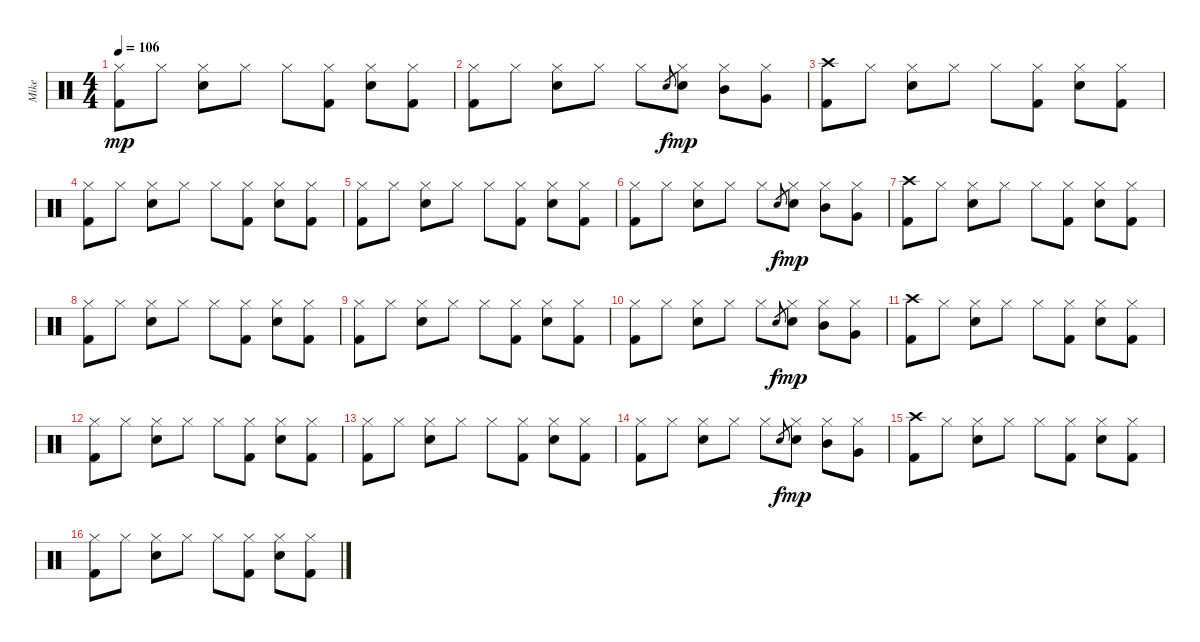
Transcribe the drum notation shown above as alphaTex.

\track ("Mike" "Mike") {instrument percussion}
\staff {score}
\articulation defaults
\ts (4 4)
\tempo 106
\clef neutral
\ks c
("Hi-Hat (closed)" "Kick (hit) 2").8{dy mp} "Hi-Hat (closed)".8 ("Hi-Hat (closed)" "Electric Snare (hit)").8 "Hi-Hat (closed)".8 "Hi-Hat (closed)".8 ("Hi-Hat (closed)" "Kick (hit) 2").8 ("Hi-Hat (closed)" "Electric Snare (hit)").8 ("Hi-Hat (closed)" "Kick (hit) 2").8 |
("Hi-Hat (closed)" "Kick (hit) 2").8 "Hi-Hat (closed)".8 ("Hi-Hat (closed)" "Electric Snare (hit)").8 "Hi-Hat (closed)".8 "Hi-Hat (closed)".8 "Electric Snare (hit)".8{gr dy f} ("Hi-Hat (closed)" "Electric Snare (hit)").8{dy mp} ("Hi-Hat (closed)" "Mid Tom (hit)").8 ("Hi-Hat (closed)" "Very Low Tom (hit)").8 |
("Crash high (hit)" "Kick (hit) 2").8 "Hi-Hat (closed)".8 ("Hi-Hat (closed)" "Electric Snare (hit)").8 "Hi-Hat (closed)".8 "Hi-Hat (closed)".8 ("Hi-Hat (closed)" "Kick (hit) 2").8 ("Hi-Hat (closed)" "Electric Snare (hit)").8 ("Hi-Hat (closed)" "Kick (hit) 2").8 |
("Hi-Hat (closed)" "Kick (hit) 2").8 "Hi-Hat (closed)".8 ("Hi-Hat (closed)" "Electric Snare (hit)").8 "Hi-Hat (closed)".8 "Hi-Hat (closed)".8 ("Hi-Hat (closed)" "Kick (hit) 2").8 ("Hi-Hat (closed)" "Electric Snare (hit)").8 ("Hi-Hat (closed)" "Kick (hit) 2").8 |
("Hi-Hat (closed)" "Kick (hit) 2").8 "Hi-Hat (closed)".8 ("Hi-Hat (closed)" "Electric Snare (hit)").8 "Hi-Hat (closed)".8 "Hi-Hat (closed)".8 ("Hi-Hat (closed)" "Kick (hit) 2").8 ("Hi-Hat (closed)" "Electric Snare (hit)").8 ("Hi-Hat (closed)" "Kick (hit) 2").8 |
("Hi-Hat (closed)" "Kick (hit) 2").8 "Hi-Hat (closed)".8 ("Hi-Hat (closed)" "Electric Snare (hit)").8 "Hi-Hat (closed)".8 "Hi-Hat (closed)".8 "Electric Snare (hit)".8{gr dy f} ("Hi-Hat (closed)" "Electric Snare (hit)").8{dy mp} ("Hi-Hat (closed)" "Mid Tom (hit)").8 ("Hi-Hat (closed)" "Very Low Tom (hit)").8 |
("Crash high (hit)" "Kick (hit) 2").8 "Hi-Hat (closed)".8 ("Hi-Hat (closed)" "Electric Snare (hit)").8 "Hi-Hat (closed)".8 "Hi-Hat (closed)".8 ("Hi-Hat (closed)" "Kick (hit) 2").8 ("Hi-Hat (closed)" "Electric Snare (hit)").8 ("Hi-Hat (closed)" "Kick (hit) 2").8 |
("Hi-Hat (closed)" "Kick (hit) 2").8 "Hi-Hat (closed)".8 ("Hi-Hat (closed)" "Electric Snare (hit)").8 "Hi-Hat (closed)".8 "Hi-Hat (closed)".8 ("Hi-Hat (closed)" "Kick (hit) 2").8 ("Hi-Hat (closed)" "Electric Snare (hit)").8 ("Hi-Hat (closed)" "Kick (hit) 2").8 |
("Hi-Hat (closed)" "Kick (hit) 2").8 "Hi-Hat (closed)".8 ("Hi-Hat (closed)" "Electric Snare (hit)").8 "Hi-Hat (closed)".8 "Hi-Hat (closed)".8 ("Hi-Hat (closed)" "Kick (hit) 2").8 ("Hi-Hat (closed)" "Electric Snare (hit)").8 ("Hi-Hat (closed)" "Kick (hit) 2").8 |
("Hi-Hat (closed)" "Kick (hit) 2").8 "Hi-Hat (closed)".8 ("Hi-Hat (closed)" "Electric Snare (hit)").8 "Hi-Hat (closed)".8 "Hi-Hat (closed)".8 "Electric Snare (hit)".8{gr dy f} ("Hi-Hat (closed)" "Electric Snare (hit)").8{dy mp} ("Hi-Hat (closed)" "Mid Tom (hit)").8 ("Hi-Hat (closed)" "Very Low Tom (hit)").8 |
("Crash high (hit)" "Kick (hit) 2").8 "Hi-Hat (closed)".8 ("Hi-Hat (closed)" "Electric Snare (hit)").8 "Hi-Hat (closed)".8 "Hi-Hat (closed)".8 ("Hi-Hat (closed)" "Kick (hit) 2").8 ("Hi-Hat (closed)" "Electric Snare (hit)").8 ("Hi-Hat (closed)" "Kick (hit) 2").8 |
("Hi-Hat (closed)" "Kick (hit) 2").8 "Hi-Hat (closed)".8 ("Hi-Hat (closed)" "Electric Snare (hit)").8 "Hi-Hat (closed)".8 "Hi-Hat (closed)".8 ("Hi-Hat (closed)" "Kick (hit) 2").8 ("Hi-Hat (closed)" "Electric Snare (hit)").8 ("Hi-Hat (closed)" "Kick (hit) 2").8 |
("Hi-Hat (closed)" "Kick (hit) 2").8 "Hi-Hat (closed)".8 ("Hi-Hat (closed)" "Electric Snare (hit)").8 "Hi-Hat (closed)".8 "Hi-Hat (closed)".8 ("Hi-Hat (closed)" "Kick (hit) 2").8 ("Hi-Hat (closed)" "Electric Snare (hit)").8 ("Hi-Hat (closed)" "Kick (hit) 2").8 |
("Hi-Hat (closed)" "Kick (hit) 2").8{volume 15} "Hi-Hat (closed)".8 ("Hi-Hat (closed)" "Electric Snare (hit)").8 "Hi-Hat (closed)".8 "Hi-Hat (closed)".8{volume 14} "Electric Snare (hit)".8{gr dy f} ("Hi-Hat (closed)" "Electric Snare (hit)").8{dy mp} ("Hi-Hat (closed)" "Mid Tom (hit)").8 ("Hi-Hat (closed)" "Very Low Tom (hit)").8 |
("Crash high (hit)" "Kick (hit) 2").8{volume 14} "Hi-Hat (closed)".8 ("Hi-Hat (closed)" "Electric Snare (hit)").8 "Hi-Hat (closed)".8 "Hi-Hat (closed)".8{volume 13} ("Hi-Hat (closed)" "Kick (hit) 2").8 ("Hi-Hat (closed)" "Electric Snare (hit)").8 ("Hi-Hat (closed)" "Kick (hit) 2").8 |
("Hi-Hat (closed)" "Kick (hit) 2").8 "Hi-Hat (closed)".8 ("Hi-Hat (closed)" "Electric Snare (hit)").8 "Hi-Hat (closed)".8 "Hi-Hat (closed)".8{volume 12} ("Hi-Hat (closed)" "Kick (hit) 2").8 ("Hi-Hat (closed)" "Electric Snare (hit)").8 ("Hi-Hat (closed)" "Kick (hit) 2").8
